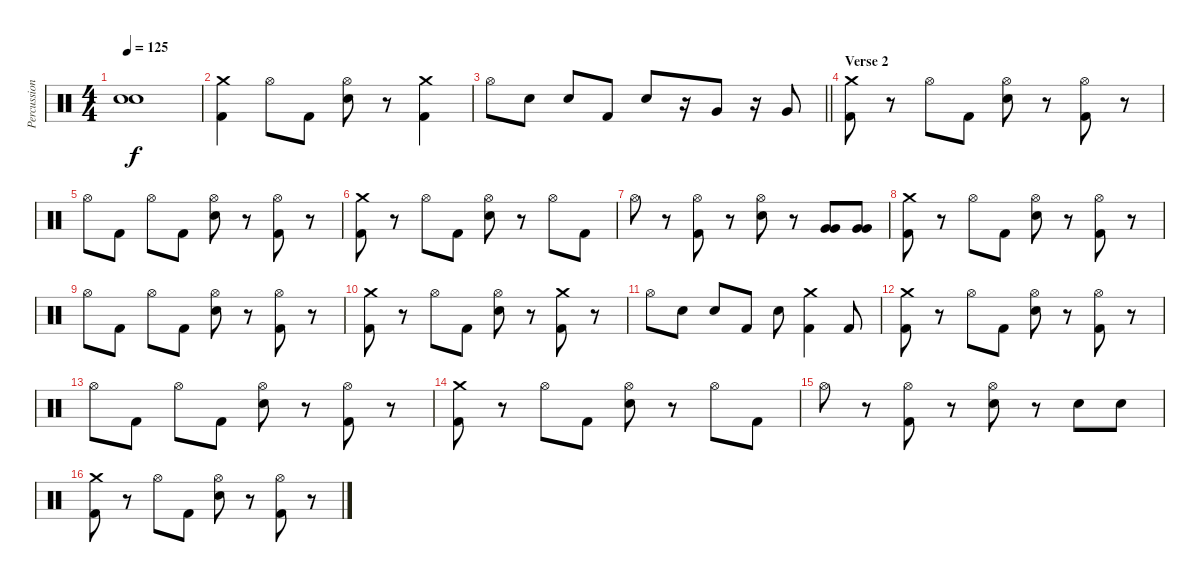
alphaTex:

\track ("Percussion" "Percussion") {instrument percussion}
\staff {score}
\articulation defaults
\ts (4 4)
\tempo 125
\clef neutral
\ks c
("Snare (hit)"{t} "Snare (hit)"{t}).1{dy f} |
("Crash medium (hit)" "Kick (hit) 2").4 "Hi-Hat (open)".8 "Kick (hit) 2".8 ("Hi-Hat (open)" "Electric Snare (hit)").8 r.8 ("Crash medium (hit)" "Kick (hit) 2").4 |
\barLineRight lightlight "Hi-Hat (open)".8 "Electric Snare (hit)".8 "Electric Snare (hit)".8 "Kick (hit) 2".8 "Electric Snare (hit)".8
r.16 "Very Low Tom (hit)".8 r.16 "Very Low Tom (hit)".8 |
\section ("" "Verse 2")
("Crash medium (hit)" "Kick (hit) 2").8 r.8 "Hi-Hat (open)".8 "Kick (hit) 2".8 ("Hi-Hat (open)" "Electric Snare (hit)").8 r.8 ("Hi-Hat (open)" "Kick (hit) 2").8 r.8 |
"Hi-Hat (open)".8 "Kick (hit) 2".8 "Hi-Hat (open)".8 "Kick (hit) 2".8 ("Hi-Hat (open)" "Electric Snare (hit)").8 r.8 ("Hi-Hat (open)" "Kick (hit) 2").8 r.8 |
("Crash medium (hit)" "Kick (hit) 2").8 r.8 "Hi-Hat (open)".8 "Kick (hit) 2".8 ("Hi-Hat (open)" "Electric Snare (hit)").8 r.8 "Hi-Hat (open)".8 "Kick (hit) 2".8 |
"Hi-Hat (open)".8 r.8 ("Hi-Hat (open)" "Kick (hit) 2").8 r.8 ("Hi-Hat (open)" "Electric Snare (hit)").8 r.8 ("Very Low Tom (hit)" "Very Low Tom (hit)").8 ("Very Low Tom (hit)" "Very Low Tom (hit)").8 |
("Crash medium (hit)" "Kick (hit) 2").8 r.8 "Hi-Hat (open)".8 "Kick (hit) 2".8 ("Hi-Hat (open)" "Electric Snare (hit)").8 r.8 ("Hi-Hat (open)" "Kick (hit) 2").8 r.8 |
"Hi-Hat (open)".8 "Kick (hit) 2".8 "Hi-Hat (open)".8 "Kick (hit) 2".8 ("Hi-Hat (open)" "Electric Snare (hit)").8 r.8 ("Hi-Hat (open)" "Kick (hit) 2").8 r.8 |
("Crash medium (hit)" "Kick (hit) 2").8 r.8 "Hi-Hat (open)".8 "Kick (hit) 2".8 ("Hi-Hat (open)" "Electric Snare (hit)").8 r.8 ("Crash medium (hit)" "Kick (hit) 2").8 r.8 |
"Hi-Hat (open)".8 "Electric Snare (hit)".8 "Electric Snare (hit)".8 "Kick (hit) 2".8 "Electric Snare (hit)".8 ("Crash medium (hit)" "Kick (hit) 2").4 "Kick (hit) 2".8 |
("Crash medium (hit)" "Kick (hit) 2").8 r.8 "Hi-Hat (open)".8 "Kick (hit) 2".8 ("Hi-Hat (open)" "Electric Snare (hit)").8 r.8 ("Hi-Hat (open)" "Kick (hit) 2").8 r.8 |
"Hi-Hat (open)".8 "Kick (hit) 2".8 "Hi-Hat (open)".8 "Kick (hit) 2".8 ("Hi-Hat (open)" "Electric Snare (hit)").8 r.8 ("Hi-Hat (open)" "Kick (hit) 2").8 r.8 |
("Crash medium (hit)" "Kick (hit) 2").8 r.8 "Hi-Hat (open)".8 "Kick (hit) 2".8 ("Hi-Hat (open)" "Electric Snare (hit)").8 r.8 "Hi-Hat (open)".8 "Kick (hit) 2".8 |
"Hi-Hat (open)".8 r.8 ("Hi-Hat (open)" "Kick (hit) 2").8 r.8 ("Hi-Hat (open)" "Electric Snare (hit)").8 r.8 "Electric Snare (hit)".8 "Electric Snare (hit)".8 |
("Crash medium (hit)" "Kick (hit) 2").8 r.8 "Hi-Hat (open)".8 "Kick (hit) 2".8 ("Hi-Hat (open)" "Electric Snare (hit)").8 r.8 ("Hi-Hat (open)" "Kick (hit) 2").8 r.8
